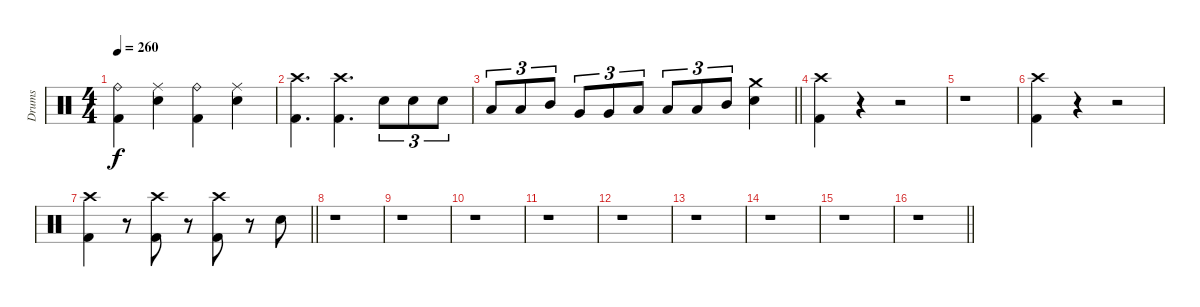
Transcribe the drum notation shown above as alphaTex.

\track ("Drums" "Drums") {instrument percussion}
\staff {score}
\articulation defaults
\ts (4 4)
\tempo 260
\clef neutral
\ks c
("Ride (bell)" "Kick (hit) 2").4{dy f} ("Ride (middle)" "Electric Snare (hit)").4 ("Ride (bell)" "Kick (hit) 2").4 ("Ride (middle)" "Electric Snare (hit)").4 |
("Crash high (hit)" "Kick (hit) 2").4{d} ("Crash high (hit)" "Kick (hit) 2").4{d} "Electric Snare (hit)".8{tu (3 2)} "Electric Snare (hit)".8{tu (3 2)} "Electric Snare (hit)".8{tu (3 2)} |
\barLineRight lightlight "Low Tom (hit)".8{tu (3 2)} "Low Tom (hit)".8{tu (3 2)} "Mid Tom (hit)".8{tu (3 2)} "Very Low Tom (hit)".8{tu (3 2)} "Very Low Tom (hit)".8{tu (3 2)} "Low Tom (hit)".8{tu (3 2)} "Low Tom (hit)".8{tu (3 2)} "Low Tom (hit)".8{tu (3 2)} "Mid Tom (hit)".8{tu (3 2)}
("Crash medium (hit)" "Electric Snare (hit)").4 |
("Crash high (hit)" "Kick (hit) 2").4 r.4 r.2 |
r.1 |
("Crash high (hit)" "Kick (hit) 2").4 r.4 r.2 |
\barLineRight lightlight
("Crash high (hit)" "Kick (hit) 2").4 r.8 ("Crash high (hit)" "Kick (hit) 2").8 r.8 ("Crash high (hit)" "Kick (hit) 2").8 r.8 "Electric Snare (hit)".8 |
r.1 |
r.1 |
r.1 |
r.1 |
r.1 |
r.1 |
r.1 |
r.1 |
\barLineRight lightlight
r.1
